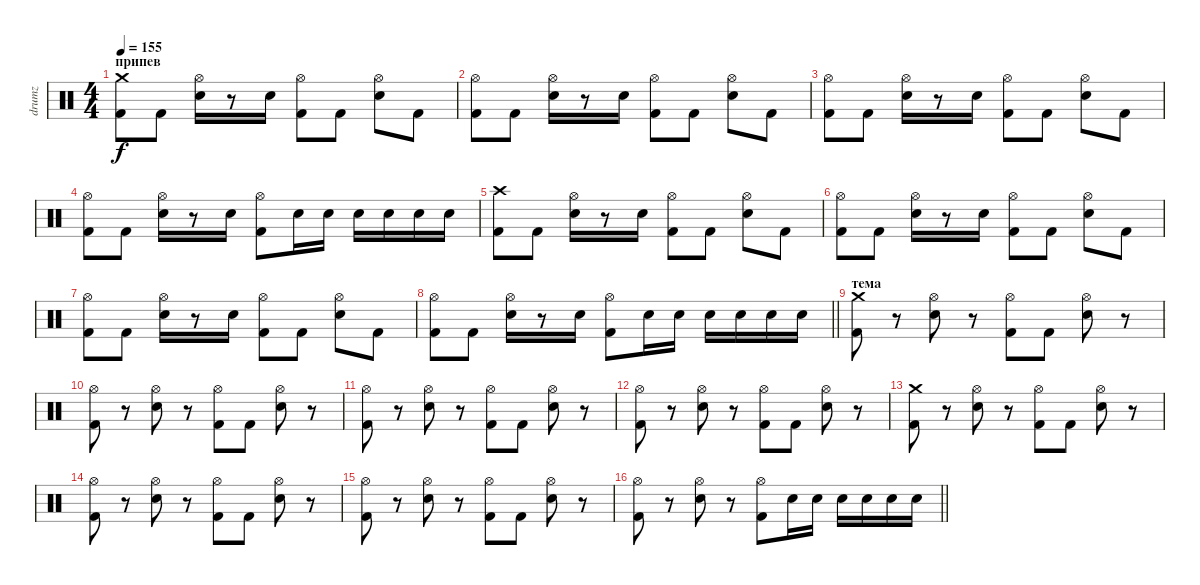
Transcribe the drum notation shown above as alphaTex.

\track ("drumz" "drumz") {instrument percussion}
\staff {score}
\articulation defaults
\ts (4 4)
\section ("" "припев")
\tempo 155
\clef neutral
\ks c
("Crash medium (hit)" "Kick (hit) 2").8{dy f} "Kick (hit) 2".8 ("Hi-Hat (open)" "Electric Snare (hit)").16 r.8 "Electric Snare (hit)".16 ("Hi-Hat (open)" "Kick (hit) 2").8 "Kick (hit) 2".8 ("Hi-Hat (open)" "Electric Snare (hit)").8 "Kick (hit) 2".8 |
("Hi-Hat (open)" "Kick (hit) 2").8 "Kick (hit) 2".8 ("Hi-Hat (open)" "Electric Snare (hit)").16 r.8 "Electric Snare (hit)".16 ("Hi-Hat (open)" "Kick (hit) 2").8 "Kick (hit) 2".8 ("Hi-Hat (open)" "Electric Snare (hit)").8 "Kick (hit) 2".8 |
("Hi-Hat (open)" "Kick (hit) 2").8 "Kick (hit) 2".8 ("Hi-Hat (open)" "Electric Snare (hit)").16 r.8 "Electric Snare (hit)".16 ("Hi-Hat (open)" "Kick (hit) 2").8 "Kick (hit) 2".8 ("Hi-Hat (open)" "Electric Snare (hit)").8 "Kick (hit) 2".8 |
("Hi-Hat (open)" "Kick (hit) 2").8 "Kick (hit) 2".8 ("Hi-Hat (open)" "Electric Snare (hit)").16 r.8 "Electric Snare (hit)".16 ("Hi-Hat (open)" "Kick (hit) 2").8 "Electric Snare (hit)".16 "Electric Snare (hit)".16 "Electric Snare (hit)".16 "Electric Snare (hit)".16 "Electric Snare (hit)".16 "Electric Snare (hit)".16 |
("Crash high (hit)" "Kick (hit) 2").8 "Kick (hit) 2".8 ("Hi-Hat (open)" "Electric Snare (hit)").16 r.8 "Electric Snare (hit)".16 ("Hi-Hat (open)" "Kick (hit) 2").8 "Kick (hit) 2".8 ("Hi-Hat (open)" "Electric Snare (hit)").8 "Kick (hit) 2".8 |
("Hi-Hat (open)" "Kick (hit) 2").8 "Kick (hit) 2".8 ("Hi-Hat (open)" "Electric Snare (hit)").16 r.8 "Electric Snare (hit)".16 ("Hi-Hat (open)" "Kick (hit) 2").8 "Kick (hit) 2".8 ("Hi-Hat (open)" "Electric Snare (hit)").8 "Kick (hit) 2".8 |
("Hi-Hat (open)" "Kick (hit) 2").8 "Kick (hit) 2".8 ("Hi-Hat (open)" "Electric Snare (hit)").16 r.8 "Electric Snare (hit)".16 ("Hi-Hat (open)" "Kick (hit) 2").8 "Kick (hit) 2".8 ("Hi-Hat (open)" "Electric Snare (hit)").8 "Kick (hit) 2".8 |
\barLineRight lightlight
("Hi-Hat (open)" "Kick (hit) 2").8 "Kick (hit) 2".8 ("Hi-Hat (open)" "Electric Snare (hit)").16 r.8 "Electric Snare (hit)".16 ("Hi-Hat (open)" "Kick (hit) 2").8 "Electric Snare (hit)".16 "Electric Snare (hit)".16 "Electric Snare (hit)".16 "Electric Snare (hit)".16 "Electric Snare (hit)".16 "Electric Snare (hit)".16 |
\section ("" "тема")
("Crash medium (hit)" "Kick (hit) 2").8 r.8 ("Hi-Hat (open)" "Electric Snare (hit)").8 r.8 ("Hi-Hat (open)" "Kick (hit) 2").8 "Kick (hit) 2".8 ("Hi-Hat (open)" "Electric Snare (hit)").8 r.8 |
("Hi-Hat (open)" "Kick (hit) 2").8 r.8 ("Hi-Hat (open)" "Electric Snare (hit)").8 r.8 ("Hi-Hat (open)" "Kick (hit) 2").8 "Kick (hit) 2".8 ("Hi-Hat (open)" "Electric Snare (hit)").8 r.8 |
("Hi-Hat (open)" "Kick (hit) 2").8 r.8 ("Hi-Hat (open)" "Electric Snare (hit)").8 r.8 ("Hi-Hat (open)" "Kick (hit) 2").8 "Kick (hit) 2".8 ("Hi-Hat (open)" "Electric Snare (hit)").8 r.8 |
("Hi-Hat (open)" "Kick (hit) 2").8 r.8 ("Hi-Hat (open)" "Electric Snare (hit)").8 r.8 ("Hi-Hat (open)" "Kick (hit) 2").8 "Kick (hit) 2".8 ("Hi-Hat (open)" "Electric Snare (hit)").8 r.8 |
("Crash medium (hit)" "Kick (hit) 2").8 r.8 ("Hi-Hat (open)" "Electric Snare (hit)").8 r.8 ("Hi-Hat (open)" "Kick (hit) 2").8 "Kick (hit) 2".8 ("Hi-Hat (open)" "Electric Snare (hit)").8 r.8 |
("Hi-Hat (open)" "Kick (hit) 2").8 r.8 ("Hi-Hat (open)" "Electric Snare (hit)").8 r.8 ("Hi-Hat (open)" "Kick (hit) 2").8 "Kick (hit) 2".8 ("Hi-Hat (open)" "Electric Snare (hit)").8 r.8 |
("Hi-Hat (open)" "Kick (hit) 2").8 r.8 ("Hi-Hat (open)" "Electric Snare (hit)").8 r.8 ("Hi-Hat (open)" "Kick (hit) 2").8 "Kick (hit) 2".8 ("Hi-Hat (open)" "Electric Snare (hit)").8 r.8 |
\barLineRight lightlight
("Hi-Hat (open)" "Kick (hit) 2").8 r.8 ("Hi-Hat (open)" "Electric Snare (hit)").8 r.8 ("Hi-Hat (open)" "Kick (hit) 2").8 "Electric Snare (hit)".16 "Electric Snare (hit)".16 "Electric Snare (hit)".16 "Electric Snare (hit)".16 "Electric Snare (hit)".16 "Electric Snare (hit)".16
